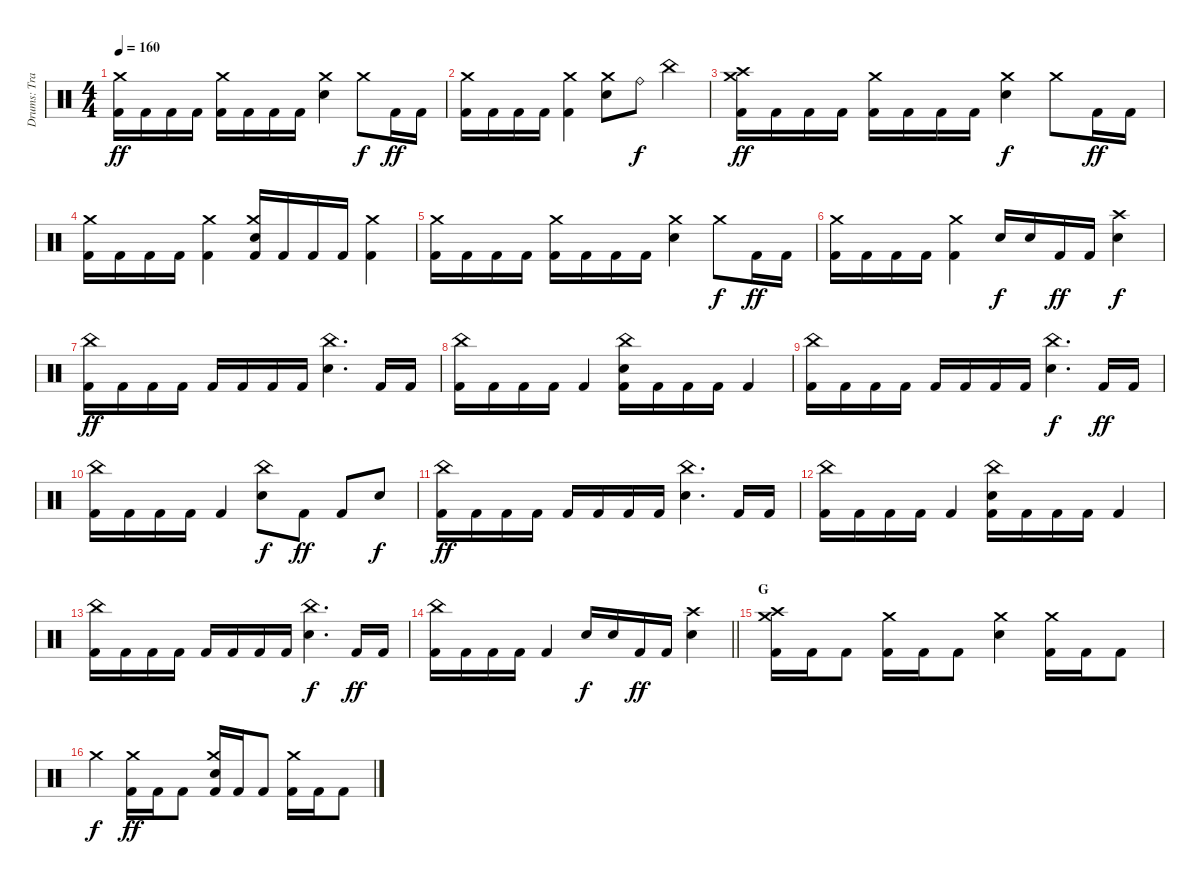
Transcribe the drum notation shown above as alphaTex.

\track ("Drums: Travis Clarke" "Drums: Tra") {instrument percussion}
\staff {score}
\articulation defaults
\ts (4 4)
\tempo 160
\clef neutral
\ks c
("Kick (hit) 2" "Crash medium (hit)").16{dy ff} "Kick (hit) 2".16 "Kick (hit) 2".16 "Kick (hit) 2".16 ("Kick (hit) 2" "Crash medium (hit)").16 "Kick (hit) 2".16 "Kick (hit) 2".16 "Kick (hit) 2".16 ("Snare (hit) 2" "Crash medium (hit)").4 "Crash medium (hit)".8{dy f} "Kick (hit) 2".16{dy ff} "Kick (hit) 2".16 |
("Kick (hit) 2" "Crash medium (hit)").16 "Kick (hit) 2".16 "Kick (hit) 2".16 "Kick (hit) 2".16 ("Kick (hit) 2" "Crash medium (hit)").4 ("Snare (hit) 2" "Crash medium (hit)").8 "Ride (bell)".8{dy f} "China (hit)".4 |
("Kick (hit) 2" "Crash high (hit)" "Crash medium (hit)").16{dy ff} "Kick (hit) 2".16 "Kick (hit) 2".16 "Kick (hit) 2".16 ("Kick (hit) 2" "Crash medium (hit)").16 "Kick (hit) 2".16 "Kick (hit) 2".16 "Kick (hit) 2".16 ("Snare (hit) 2" "Crash medium (hit)").4{dy f} "Crash medium (hit)".8 "Kick (hit) 2".16{dy ff} "Kick (hit) 2".16 |
("Kick (hit) 2" "Crash medium (hit)").16 "Kick (hit) 2".16 "Kick (hit) 2".16 "Kick (hit) 2".16 ("Kick (hit) 2" "Crash medium (hit)").4 ("Kick (hit) 2" "Snare (hit) 2" "Crash medium (hit)").16 "Kick (hit) 2".16 "Kick (hit) 2".16 "Kick (hit) 2".16 ("Kick (hit) 2" "Crash medium (hit)").4 |
("Kick (hit) 2" "Crash medium (hit)").16 "Kick (hit) 2".16 "Kick (hit) 2".16 "Kick (hit) 2".16 ("Kick (hit) 2" "Crash medium (hit)").16 "Kick (hit) 2".16 "Kick (hit) 2".16 "Kick (hit) 2".16 ("Snare (hit) 2" "Crash medium (hit)").4 "Crash medium (hit)".8{dy f} "Kick (hit) 2".16{dy ff} "Kick (hit) 2".16 |
("Kick (hit) 2" "Crash medium (hit)").16 "Kick (hit) 2".16 "Kick (hit) 2".16 "Kick (hit) 2".16 ("Kick (hit) 2" "Crash medium (hit)").4 "Snare (hit) 2".16{dy f} "Snare (hit) 2".16 "Kick (hit) 2".16{dy ff} "Kick (hit) 2".16 ("Snare (hit) 2" "Crash high (hit)").4{dy f} |
("Kick (hit) 2" "China (hit)").16{dy ff} "Kick (hit) 2".16 "Kick (hit) 2".16 "Kick (hit) 2".16 "Kick (hit) 2".16 "Kick (hit) 2".16 "Kick (hit) 2".16 "Kick (hit) 2".16 ("Snare (hit) 2" "China (hit)").4{d} "Kick (hit) 2".16 "Kick (hit) 2".16 |
("Kick (hit) 2" "China (hit)").16 "Kick (hit) 2".16 "Kick (hit) 2".16 "Kick (hit) 2".16 "Kick (hit) 2".4 ("Kick (hit) 2" "Snare (hit) 2" "China (hit)").16 "Kick (hit) 2".16 "Kick (hit) 2".16 "Kick (hit) 2".16 "Kick (hit) 2".4 |
("Kick (hit) 2" "China (hit)").16 "Kick (hit) 2".16 "Kick (hit) 2".16 "Kick (hit) 2".16 "Kick (hit) 2".16 "Kick (hit) 2".16 "Kick (hit) 2".16 "Kick (hit) 2".16 ("Snare (hit) 2" "China (hit)").4{d dy f} "Kick (hit) 2".16{dy ff} "Kick (hit) 2".16 |
("Kick (hit) 2" "China (hit)").16 "Kick (hit) 2".16 "Kick (hit) 2".16 "Kick (hit) 2".16 "Kick (hit) 2".4 ("Snare (hit) 2" "China (hit)").8{dy f} "Kick (hit) 2".8{dy ff} "Kick (hit) 2".8 "Snare (hit) 2".8{dy f} |
("Kick (hit) 2" "China (hit)").16{dy ff} "Kick (hit) 2".16 "Kick (hit) 2".16 "Kick (hit) 2".16 "Kick (hit) 2".16 "Kick (hit) 2".16 "Kick (hit) 2".16 "Kick (hit) 2".16 ("Snare (hit) 2" "China (hit)").4{d} "Kick (hit) 2".16 "Kick (hit) 2".16 |
("Kick (hit) 2" "China (hit)").16 "Kick (hit) 2".16 "Kick (hit) 2".16 "Kick (hit) 2".16 "Kick (hit) 2".4 ("Kick (hit) 2" "Snare (hit) 2" "China (hit)").16 "Kick (hit) 2".16 "Kick (hit) 2".16 "Kick (hit) 2".16 "Kick (hit) 2".4 |
("Kick (hit) 2" "China (hit)").16 "Kick (hit) 2".16 "Kick (hit) 2".16 "Kick (hit) 2".16 "Kick (hit) 2".16 "Kick (hit) 2".16 "Kick (hit) 2".16 "Kick (hit) 2".16 ("Snare (hit) 2" "China (hit)").4{d dy f} "Kick (hit) 2".16{dy ff} "Kick (hit) 2".16 |
\barLineRight lightlight
("Kick (hit) 2" "China (hit)").16 "Kick (hit) 2".16 "Kick (hit) 2".16 "Kick (hit) 2".16 "Kick (hit) 2".4 "Snare (hit) 2".16{dy f} "Snare (hit) 2".16 "Kick (hit) 2".16{dy ff} "Kick (hit) 2".16 ("Snare (hit) 2" "Crash high (hit)").4 |
\section ("" "G")
("Kick (hit) 2" "Crash high (hit)" "Crash medium (hit)").16 "Kick (hit) 2".16 "Kick (hit) 2".8 ("Kick (hit) 2" "Crash medium (hit)").16 "Kick (hit) 2".16 "Kick (hit) 2".8 ("Snare (hit) 2" "Crash medium (hit)").4 ("Kick (hit) 2" "Crash medium (hit)").16 "Kick (hit) 2".16 "Kick (hit) 2".8 |
"Crash medium (hit)".4{dy f} ("Kick (hit) 2" "Crash medium (hit)").16{dy ff} "Kick (hit) 2".16 "Kick (hit) 2".8 ("Kick (hit) 2" "Snare (hit) 2" "Crash medium (hit)").16 "Kick (hit) 2".16 "Kick (hit) 2".8 ("Kick (hit) 2" "Crash medium (hit)").16 "Kick (hit) 2".16 "Kick (hit) 2".8
